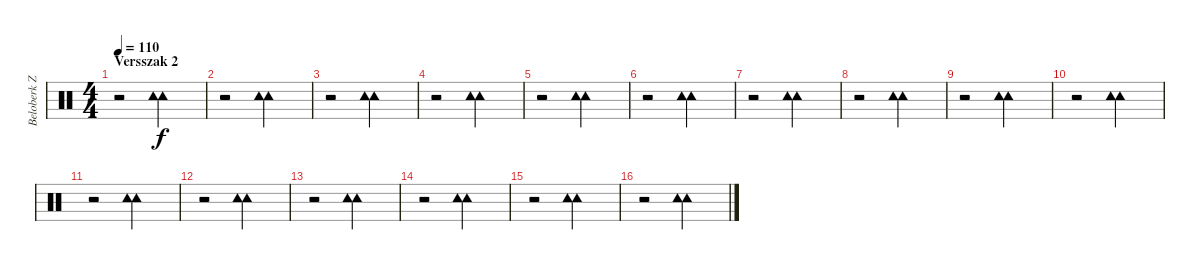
\track ("Beloberk Zsolt" "Beloberk Z") {instrument percussion}
\staff {score}
\articulation defaults
\ts (4 4)
\section ("" "Versszak 2")
\tempo 110
\clef neutral
\ks c
r.2{dy f} ("Tambourine (hit)" "Tambourine (hit)").2 |
r.2 ("Tambourine (hit)" "Tambourine (hit)").2 |
r.2 ("Tambourine (hit)" "Tambourine (hit)").2 |
r.2 ("Tambourine (hit)" "Tambourine (hit)").2 |
r.2 ("Tambourine (hit)" "Tambourine (hit)").2 |
r.2 ("Tambourine (hit)" "Tambourine (hit)").2 |
r.2 ("Tambourine (hit)" "Tambourine (hit)").2 |
r.2 ("Tambourine (hit)" "Tambourine (hit)").2 |
r.2 ("Tambourine (hit)" "Tambourine (hit)").2 |
r.2 ("Tambourine (hit)" "Tambourine (hit)").2 |
r.2 ("Tambourine (hit)" "Tambourine (hit)").2 |
r.2 ("Tambourine (hit)" "Tambourine (hit)").2 |
r.2 ("Tambourine (hit)" "Tambourine (hit)").2 |
r.2 ("Tambourine (hit)" "Tambourine (hit)").2 |
r.2 ("Tambourine (hit)" "Tambourine (hit)").2 |
r.2 ("Tambourine (hit)" "Tambourine (hit)").2
